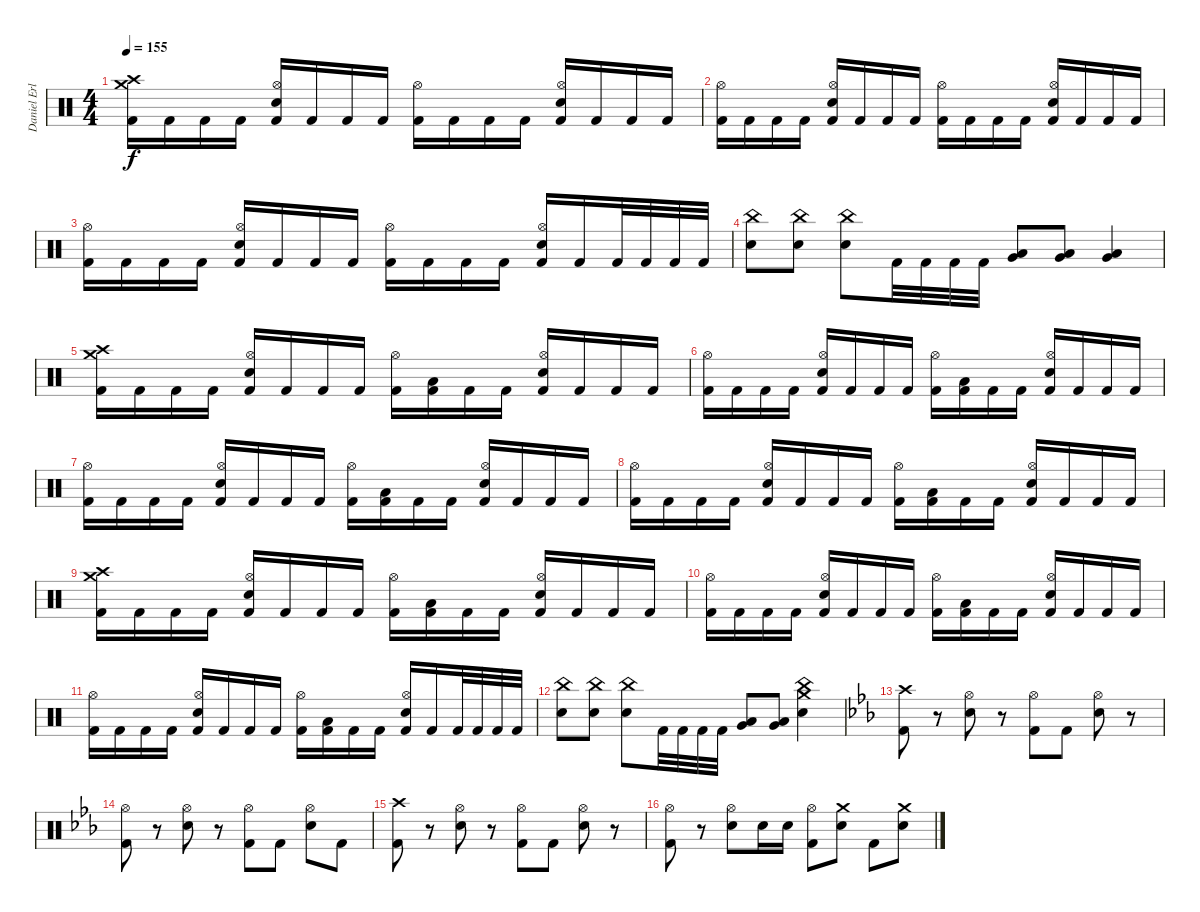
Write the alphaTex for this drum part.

\track ("Daniel Erlandsson" "Daniel Erl") {instrument percussion}
\staff {score}
\articulation defaults
\ts (4 4)
\tempo 155
\clef neutral
\ks c
("Crash high (hit)" "Crash medium (hit)" "Kick (hit) 2").16{dy f} "Kick (hit) 2".16 "Kick (hit) 2".16 "Kick (hit) 2".16 ("Hi-Hat (open)" "Snare (hit) 2" "Kick (hit) 2").16 "Kick (hit) 2".16 "Kick (hit) 2".16 "Kick (hit) 2".16 ("Hi-Hat (open)" "Kick (hit) 2").16 "Kick (hit) 2".16 "Kick (hit) 2".16 "Kick (hit) 2".16 ("Hi-Hat (open)" "Snare (hit) 2" "Kick (hit) 2").16 "Kick (hit) 2".16 "Kick (hit) 2".16 "Kick (hit) 2".16 |
("Hi-Hat (open)" "Kick (hit) 2").16 "Kick (hit) 2".16 "Kick (hit) 2".16 "Kick (hit) 2".16 ("Hi-Hat (open)" "Snare (hit) 2" "Kick (hit) 2").16 "Kick (hit) 2".16 "Kick (hit) 2".16 "Kick (hit) 2".16 ("Hi-Hat (open)" "Kick (hit) 2").16 "Kick (hit) 2".16 "Kick (hit) 2".16 "Kick (hit) 2".16 ("Hi-Hat (open)" "Snare (hit) 2" "Kick (hit) 2").16 "Kick (hit) 2".16 "Kick (hit) 2".16 "Kick (hit) 2".16 |
("Hi-Hat (open)" "Kick (hit) 2").16 "Kick (hit) 2".16 "Kick (hit) 2".16 "Kick (hit) 2".16 ("Hi-Hat (open)" "Snare (hit) 2" "Kick (hit) 2").16 "Kick (hit) 2".16 "Kick (hit) 2".16 "Kick (hit) 2".16 ("Hi-Hat (open)" "Kick (hit) 2").16 "Kick (hit) 2".16 "Kick (hit) 2".16 "Kick (hit) 2".16 ("Hi-Hat (open)" "Snare (hit) 2" "Kick (hit) 2").16 "Kick (hit) 2".16 "Kick (hit) 2".32 "Kick (hit) 2".32 "Kick (hit) 2".32 "Kick (hit) 2".32 |
("China (hit)" "Snare (hit) 2").8 ("China (hit)" "Snare (hit) 2").8 ("China (hit)" "Snare (hit) 2").8 "Kick (hit) 2".32 "Kick (hit) 2".32 "Kick (hit) 2".32 "Kick (hit) 2".32 ("Very Low Tom (hit)" "Low Tom (hit)").8 ("Very Low Tom (hit)" "Low Tom (hit)").8 ("Very Low Tom (hit)" "Low Tom (hit)").4 |
("Crash high (hit)" "Crash medium (hit)" "Kick (hit) 2").16 "Kick (hit) 2".16 "Kick (hit) 2".16 "Kick (hit) 2".16 ("Hi-Hat (open)" "Snare (hit) 2" "Kick (hit) 2").16 "Kick (hit) 2".16 "Kick (hit) 2".16 "Kick (hit) 2".16 ("Hi-Hat (open)" "Kick (hit) 2").16 ("Low Tom (hit)" "Kick (hit) 2").16 "Kick (hit) 2".16 "Kick (hit) 2".16 ("Hi-Hat (open)" "Snare (hit) 2" "Kick (hit) 2").16 "Kick (hit) 2".16 "Kick (hit) 2".16 "Kick (hit) 2".16 |
("Hi-Hat (open)" "Kick (hit) 2").16 "Kick (hit) 2".16 "Kick (hit) 2".16 "Kick (hit) 2".16 ("Hi-Hat (open)" "Snare (hit) 2" "Kick (hit) 2").16 "Kick (hit) 2".16 "Kick (hit) 2".16 "Kick (hit) 2".16 ("Hi-Hat (open)" "Kick (hit) 2").16 ("Low Tom (hit)" "Kick (hit) 2").16 "Kick (hit) 2".16 "Kick (hit) 2".16 ("Hi-Hat (open)" "Snare (hit) 2" "Kick (hit) 2").16 "Kick (hit) 2".16 "Kick (hit) 2".16 "Kick (hit) 2".16 |
("Hi-Hat (open)" "Kick (hit) 2").16 "Kick (hit) 2".16 "Kick (hit) 2".16 "Kick (hit) 2".16 ("Hi-Hat (open)" "Snare (hit) 2" "Kick (hit) 2").16 "Kick (hit) 2".16 "Kick (hit) 2".16 "Kick (hit) 2".16 ("Hi-Hat (open)" "Kick (hit) 2").16 ("Low Tom (hit)" "Kick (hit) 2").16 "Kick (hit) 2".16 "Kick (hit) 2".16 ("Hi-Hat (open)" "Snare (hit) 2" "Kick (hit) 2").16 "Kick (hit) 2".16 "Kick (hit) 2".16 "Kick (hit) 2".16 |
("Hi-Hat (open)" "Kick (hit) 2").16 "Kick (hit) 2".16 "Kick (hit) 2".16 "Kick (hit) 2".16 ("Hi-Hat (open)" "Snare (hit) 2" "Kick (hit) 2").16 "Kick (hit) 2".16 "Kick (hit) 2".16 "Kick (hit) 2".16 ("Hi-Hat (open)" "Kick (hit) 2").16 ("Low Tom (hit)" "Kick (hit) 2").16 "Kick (hit) 2".16 "Kick (hit) 2".16 ("Hi-Hat (open)" "Snare (hit) 2" "Kick (hit) 2").16 "Kick (hit) 2".16 "Kick (hit) 2".16 "Kick (hit) 2".16 |
("Crash high (hit)" "Crash medium (hit)" "Kick (hit) 2").16 "Kick (hit) 2".16 "Kick (hit) 2".16 "Kick (hit) 2".16 ("Hi-Hat (open)" "Snare (hit) 2" "Kick (hit) 2").16 "Kick (hit) 2".16 "Kick (hit) 2".16 "Kick (hit) 2".16 ("Hi-Hat (open)" "Kick (hit) 2").16 ("Low Tom (hit)" "Kick (hit) 2").16 "Kick (hit) 2".16 "Kick (hit) 2".16 ("Hi-Hat (open)" "Snare (hit) 2" "Kick (hit) 2").16 "Kick (hit) 2".16 "Kick (hit) 2".16 "Kick (hit) 2".16 |
("Hi-Hat (open)" "Kick (hit) 2").16 "Kick (hit) 2".16 "Kick (hit) 2".16 "Kick (hit) 2".16 ("Hi-Hat (open)" "Snare (hit) 2" "Kick (hit) 2").16 "Kick (hit) 2".16 "Kick (hit) 2".16 "Kick (hit) 2".16 ("Hi-Hat (open)" "Kick (hit) 2").16 ("Low Tom (hit)" "Kick (hit) 2").16 "Kick (hit) 2".16 "Kick (hit) 2".16 ("Hi-Hat (open)" "Snare (hit) 2" "Kick (hit) 2").16 "Kick (hit) 2".16 "Kick (hit) 2".16 "Kick (hit) 2".16 |
("Hi-Hat (open)" "Kick (hit) 2").16 "Kick (hit) 2".16 "Kick (hit) 2".16 "Kick (hit) 2".16 ("Hi-Hat (open)" "Snare (hit) 2" "Kick (hit) 2").16 "Kick (hit) 2".16 "Kick (hit) 2".16 "Kick (hit) 2".16 ("Hi-Hat (open)" "Kick (hit) 2").16 ("Low Tom (hit)" "Kick (hit) 2").16 "Kick (hit) 2".16 "Kick (hit) 2".16 ("Hi-Hat (open)" "Snare (hit) 2" "Kick (hit) 2").16 "Kick (hit) 2".16 "Kick (hit) 2".32 "Kick (hit) 2".32 "Kick (hit) 2".32 "Kick (hit) 2".32 |
("China (hit)" "Snare (hit) 2").8 ("China (hit)" "Snare (hit) 2").8 ("China (hit)" "Snare (hit) 2").8 "Kick (hit) 2".32 "Kick (hit) 2".32 "Kick (hit) 2".32 "Kick (hit) 2".32 ("Very Low Tom (hit)" "Low Tom (hit)").8 ("Very Low Tom (hit)" "Low Tom (hit)").8 ("Crash medium (hit)" "China (hit)" "Snare (hit) 2").4 |
\ks cminor
("Crash high (hit)" "Kick (hit) 2").8 r.8 ("Hi-Hat (open)" "Snare (hit) 2").8 r.8 ("Hi-Hat (open)" "Kick (hit) 2").8 "Kick (hit) 2".8 ("Hi-Hat (open)" "Snare (hit) 2").8 r.8 |
("Hi-Hat (open)" "Kick (hit) 2").8 r.8 ("Hi-Hat (open)" "Snare (hit) 2").8 r.8 ("Hi-Hat (open)" "Kick (hit) 2").8 "Kick (hit) 2".8 ("Hi-Hat (open)" "Snare (hit) 2").8 "Kick (hit) 2".8 |
("Crash high (hit)" "Kick (hit) 2").8 r.8 ("Hi-Hat (open)" "Snare (hit) 2").8 r.8 ("Hi-Hat (open)" "Kick (hit) 2").8 "Kick (hit) 2".8 ("Hi-Hat (open)" "Snare (hit) 2").8 r.8 |
("Hi-Hat (open)" "Kick (hit) 2").8 r.8 ("Hi-Hat (open)" "Snare (hit) 2").8 "Snare (hit) 2".16 "Snare (hit) 2".16 ("Hi-Hat (open)" "Kick (hit) 2").8 ("Crash medium (hit)" "Snare (hit) 2").8 "Kick (hit) 2".8 ("Crash medium (hit)" "Snare (hit) 2").8
